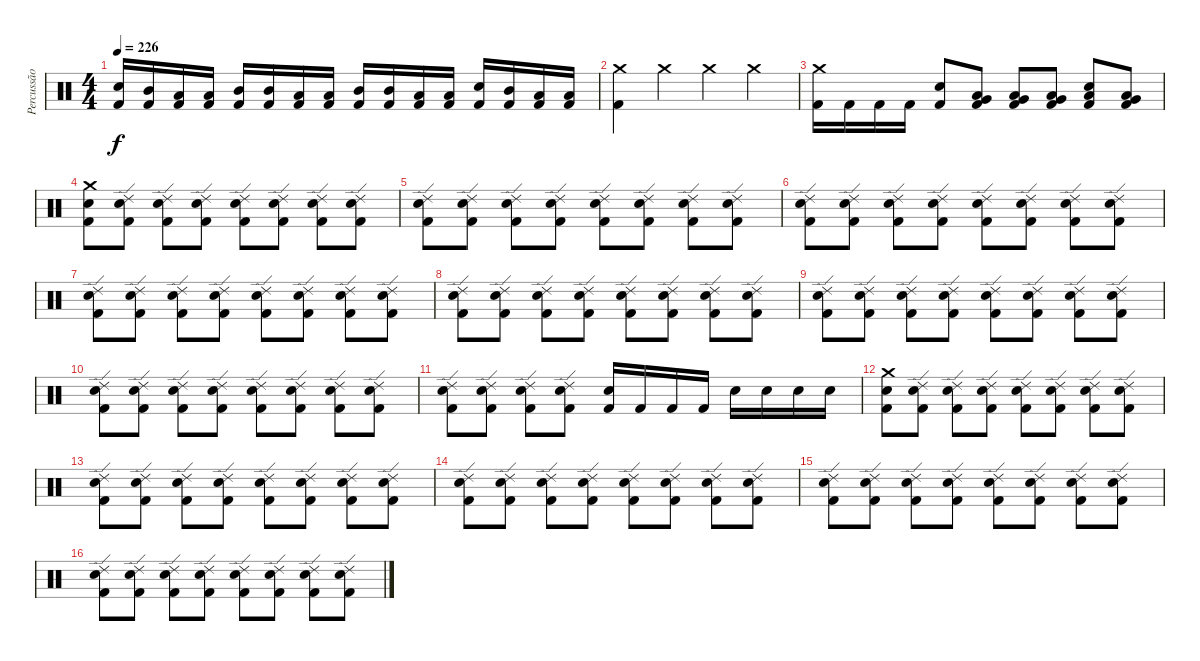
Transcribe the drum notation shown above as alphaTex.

\track ("Percussão" "Percussão") {instrument percussion}
\staff {score}
\articulation defaults
\ts (4 4)
\tempo 226
\clef neutral
\ks c
("Electric Snare (hit)" "Kick (hit) 2").16{dy f} ("Mid Tom (hit)" "Kick (hit) 2").16 ("Low Tom (hit)" "Kick (hit) 2").16 ("Low Tom (hit)" "Kick (hit) 2").16 ("Mid Tom (hit)" "Kick (hit) 2").16 ("Mid Tom (hit)" "Kick (hit) 2").16 ("Low Tom (hit)" "Kick (hit) 2").16 ("Low Tom (hit)" "Kick (hit) 2").16 ("Mid Tom (hit)" "Kick (hit) 2").16 ("Mid Tom (hit)" "Kick (hit) 2").16 ("Low Tom (hit)" "Kick (hit) 2").16 ("Low Tom (hit)" "Kick (hit) 2").16 ("Electric Snare (hit)" "Kick (hit) 2").16 ("Mid Tom (hit)" "Kick (hit) 2").16 ("Low Tom (hit)" "Kick (hit) 2").16 ("Low Tom (hit)" "Kick (hit) 2").16 |
("Crash medium (hit)" "Kick (hit) 2").4 "Crash medium (hit)".4 "Crash medium (hit)".4 "Crash medium (hit)".4 |
("Crash medium (hit)" "Kick (hit) 2").16 "Kick (hit) 2".16 "Kick (hit) 2".16 "Kick (hit) 2".16 ("Electric Snare (hit)" "Kick (hit) 2").8 ("Very Low Tom (hit)" "Low Tom (hit)" "Kick (hit) 2").8 ("Low Tom (hit)" "Very Low Tom (hit)" "Kick (hit) 2").8 ("Low Tom (hit)" "Very Low Tom (hit)" "Kick (hit) 2").8 ("Low Tom (hit)" "Snare (hit)" "Kick (hit) 2").8 ("Low Tom (hit)" "Very Low Tom (hit)" "Kick (hit) 2").8 |
("Crash medium (hit)" "Electric Snare (hit)" "Kick (hit) 2").8 ("Ride (edge) 2" "Electric Snare (hit)" "Kick (hit) 2").8 ("Ride (edge) 2" "Electric Snare (hit)" "Kick (hit) 2").8 ("Ride (edge) 2" "Electric Snare (hit)" "Kick (hit) 2").8 ("Ride (edge) 2" "Electric Snare (hit)" "Kick (hit) 2").8 ("Ride (edge) 2" "Electric Snare (hit)" "Kick (hit) 2").8 ("Ride (edge) 2" "Electric Snare (hit)" "Kick (hit) 2").8 ("Ride (edge) 2" "Electric Snare (hit)" "Kick (hit) 2").8 |
("Ride (edge) 2" "Electric Snare (hit)" "Kick (hit) 2").8 ("Ride (edge) 2" "Electric Snare (hit)" "Kick (hit) 2").8 ("Ride (edge) 2" "Electric Snare (hit)" "Kick (hit) 2").8 ("Ride (edge) 2" "Electric Snare (hit)" "Kick (hit) 2").8 ("Ride (edge) 2" "Electric Snare (hit)" "Kick (hit) 2").8 ("Ride (edge) 2" "Electric Snare (hit)" "Kick (hit) 2").8 ("Ride (edge) 2" "Electric Snare (hit)" "Kick (hit) 2").8 ("Ride (edge) 2" "Electric Snare (hit)" "Kick (hit) 2").8 |
("Ride (edge) 2" "Electric Snare (hit)" "Kick (hit) 2").8 ("Ride (edge) 2" "Electric Snare (hit)" "Kick (hit) 2").8 ("Ride (edge) 2" "Electric Snare (hit)" "Kick (hit) 2").8 ("Ride (edge) 2" "Electric Snare (hit)" "Kick (hit) 2").8 ("Ride (edge) 2" "Electric Snare (hit)" "Kick (hit) 2").8 ("Ride (edge) 2" "Electric Snare (hit)" "Kick (hit) 2").8 ("Ride (edge) 2" "Electric Snare (hit)" "Kick (hit) 2").8 ("Ride (edge) 2" "Electric Snare (hit)" "Kick (hit) 2").8 |
("Ride (edge) 2" "Electric Snare (hit)" "Kick (hit) 2").8 ("Ride (edge) 2" "Electric Snare (hit)" "Kick (hit) 2").8 ("Ride (edge) 2" "Electric Snare (hit)" "Kick (hit) 2").8 ("Ride (edge) 2" "Electric Snare (hit)" "Kick (hit) 2").8 ("Ride (edge) 2" "Electric Snare (hit)" "Kick (hit) 2").8 ("Ride (edge) 2" "Electric Snare (hit)" "Kick (hit) 2").8 ("Ride (edge) 2" "Electric Snare (hit)" "Kick (hit) 2").8 ("Ride (edge) 2" "Electric Snare (hit)" "Kick (hit) 2").8 |
("Ride (edge) 2" "Electric Snare (hit)" "Kick (hit) 2").8 ("Ride (edge) 2" "Electric Snare (hit)" "Kick (hit) 2").8 ("Ride (edge) 2" "Electric Snare (hit)" "Kick (hit) 2").8 ("Ride (edge) 2" "Electric Snare (hit)" "Kick (hit) 2").8 ("Ride (edge) 2" "Electric Snare (hit)" "Kick (hit) 2").8 ("Ride (edge) 2" "Electric Snare (hit)" "Kick (hit) 2").8 ("Ride (edge) 2" "Electric Snare (hit)" "Kick (hit) 2").8 ("Ride (edge) 2" "Electric Snare (hit)" "Kick (hit) 2").8 |
("Ride (edge) 2" "Electric Snare (hit)" "Kick (hit) 2").8 ("Ride (edge) 2" "Electric Snare (hit)" "Kick (hit) 2").8 ("Ride (edge) 2" "Electric Snare (hit)" "Kick (hit) 2").8 ("Ride (edge) 2" "Electric Snare (hit)" "Kick (hit) 2").8 ("Ride (edge) 2" "Electric Snare (hit)" "Kick (hit) 2").8 ("Ride (edge) 2" "Electric Snare (hit)" "Kick (hit) 2").8 ("Ride (edge) 2" "Electric Snare (hit)" "Kick (hit) 2").8 ("Ride (edge) 2" "Electric Snare (hit)" "Kick (hit) 2").8 |
("Ride (edge) 2" "Electric Snare (hit)" "Kick (hit) 2").8 ("Ride (edge) 2" "Electric Snare (hit)" "Kick (hit) 2").8 ("Ride (edge) 2" "Electric Snare (hit)" "Kick (hit) 2").8 ("Ride (edge) 2" "Electric Snare (hit)" "Kick (hit) 2").8 ("Ride (edge) 2" "Electric Snare (hit)" "Kick (hit) 2").8 ("Ride (edge) 2" "Electric Snare (hit)" "Kick (hit) 2").8 ("Ride (edge) 2" "Electric Snare (hit)" "Kick (hit) 2").8 ("Ride (edge) 2" "Electric Snare (hit)" "Kick (hit) 2").8 |
("Ride (edge) 2" "Electric Snare (hit)" "Kick (hit) 2").8 ("Ride (edge) 2" "Electric Snare (hit)" "Kick (hit) 2").8 ("Ride (edge) 2" "Electric Snare (hit)" "Kick (hit) 2").8 ("Ride (edge) 2" "Electric Snare (hit)" "Kick (hit) 2").8 ("Electric Snare (hit)" "Kick (hit) 2").16 "Kick (hit) 2".16 "Kick (hit) 2".16 "Kick (hit) 2".16 "Electric Snare (hit)".16 "Electric Snare (hit)".16 "Electric Snare (hit)".16 "Electric Snare (hit)".16 |
("Crash medium (hit)" "Electric Snare (hit)" "Kick (hit) 2").8 ("Ride (edge) 2" "Electric Snare (hit)" "Kick (hit) 2").8 ("Ride (edge) 2" "Electric Snare (hit)" "Kick (hit) 2").8 ("Ride (edge) 2" "Electric Snare (hit)" "Kick (hit) 2").8 ("Ride (edge) 2" "Electric Snare (hit)" "Kick (hit) 2").8 ("Ride (edge) 2" "Electric Snare (hit)" "Kick (hit) 2").8 ("Ride (edge) 2" "Electric Snare (hit)" "Kick (hit) 2").8 ("Ride (edge) 2" "Electric Snare (hit)" "Kick (hit) 2").8 |
("Ride (edge) 2" "Electric Snare (hit)" "Kick (hit) 2").8 ("Ride (edge) 2" "Electric Snare (hit)" "Kick (hit) 2").8 ("Ride (edge) 2" "Electric Snare (hit)" "Kick (hit) 2").8 ("Ride (edge) 2" "Electric Snare (hit)" "Kick (hit) 2").8 ("Ride (edge) 2" "Electric Snare (hit)" "Kick (hit) 2").8 ("Ride (edge) 2" "Electric Snare (hit)" "Kick (hit) 2").8 ("Ride (edge) 2" "Electric Snare (hit)" "Kick (hit) 2").8 ("Ride (edge) 2" "Electric Snare (hit)" "Kick (hit) 2").8 |
("Ride (edge) 2" "Electric Snare (hit)" "Kick (hit) 2").8 ("Ride (edge) 2" "Electric Snare (hit)" "Kick (hit) 2").8 ("Ride (edge) 2" "Electric Snare (hit)" "Kick (hit) 2").8 ("Ride (edge) 2" "Electric Snare (hit)" "Kick (hit) 2").8 ("Ride (edge) 2" "Electric Snare (hit)" "Kick (hit) 2").8 ("Ride (edge) 2" "Electric Snare (hit)" "Kick (hit) 2").8 ("Ride (edge) 2" "Electric Snare (hit)" "Kick (hit) 2").8 ("Ride (edge) 2" "Electric Snare (hit)" "Kick (hit) 2").8 |
("Ride (edge) 2" "Electric Snare (hit)" "Kick (hit) 2").8 ("Ride (edge) 2" "Electric Snare (hit)" "Kick (hit) 2").8 ("Ride (edge) 2" "Electric Snare (hit)" "Kick (hit) 2").8 ("Ride (edge) 2" "Electric Snare (hit)" "Kick (hit) 2").8 ("Ride (edge) 2" "Electric Snare (hit)" "Kick (hit) 2").8 ("Ride (edge) 2" "Electric Snare (hit)" "Kick (hit) 2").8 ("Ride (edge) 2" "Electric Snare (hit)" "Kick (hit) 2").8 ("Ride (edge) 2" "Electric Snare (hit)" "Kick (hit) 2").8 |
("Ride (edge) 2" "Electric Snare (hit)" "Kick (hit) 2").8 ("Ride (edge) 2" "Electric Snare (hit)" "Kick (hit) 2").8 ("Ride (edge) 2" "Electric Snare (hit)" "Kick (hit) 2").8 ("Ride (edge) 2" "Electric Snare (hit)" "Kick (hit) 2").8 ("Ride (edge) 2" "Electric Snare (hit)" "Kick (hit) 2").8 ("Ride (edge) 2" "Electric Snare (hit)" "Kick (hit) 2").8 ("Ride (edge) 2" "Electric Snare (hit)" "Kick (hit) 2").8 ("Ride (edge) 2" "Electric Snare (hit)" "Kick (hit) 2").8
